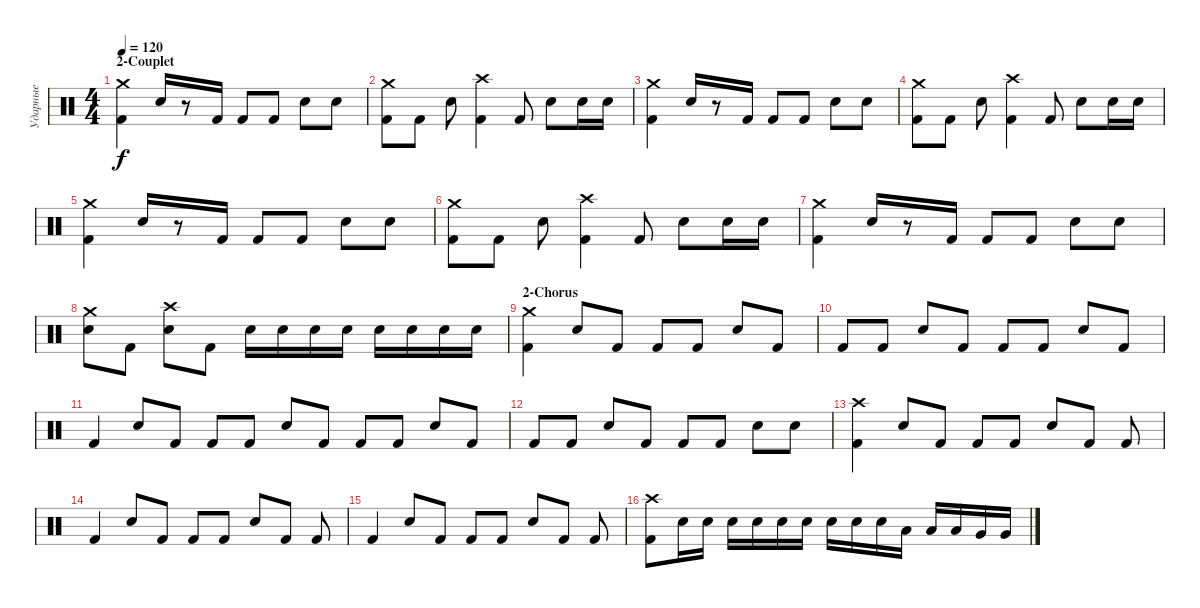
\track ("Ударные" "Ударные") {instrument percussion}
\staff {score}
\articulation defaults
\ts (4 4)
\section ("" "2-Couplet")
\tempo 120
\clef neutral
\ks c
("Kick (hit) 2" "Crash medium (hit)").4{dy f} "Electric Snare (hit)".16 r.8 "Kick (hit) 2".16 "Kick (hit) 2".8 "Kick (hit) 2".8 "Electric Snare (hit)".8 "Electric Snare (hit)".8 |
("Kick (hit) 2" "Crash medium (hit)").8 "Kick (hit) 2".8 "Electric Snare (hit)".8 ("Kick (hit) 2" "Crash high (hit)").4 "Kick (hit) 2".8 "Electric Snare (hit)".8 "Electric Snare (hit)".16 "Electric Snare (hit)".16 |
("Kick (hit) 2" "Crash medium (hit)").4 "Electric Snare (hit)".16 r.8 "Kick (hit) 2".16 "Kick (hit) 2".8 "Kick (hit) 2".8 "Electric Snare (hit)".8 "Electric Snare (hit)".8 |
("Kick (hit) 2" "Crash medium (hit)").8 "Kick (hit) 2".8 "Electric Snare (hit)".8 ("Kick (hit) 2" "Crash high (hit)").4 "Kick (hit) 2".8 "Electric Snare (hit)".8 "Electric Snare (hit)".16 "Electric Snare (hit)".16 |
("Kick (hit) 2" "Crash medium (hit)").4 "Electric Snare (hit)".16 r.8 "Kick (hit) 2".16 "Kick (hit) 2".8 "Kick (hit) 2".8 "Electric Snare (hit)".8 "Electric Snare (hit)".8 |
("Kick (hit) 2" "Crash medium (hit)").8 "Kick (hit) 2".8 "Electric Snare (hit)".8 ("Kick (hit) 2" "Crash high (hit)").4 "Kick (hit) 2".8 "Electric Snare (hit)".8 "Electric Snare (hit)".16 "Electric Snare (hit)".16 |
("Kick (hit) 2" "Crash medium (hit)").4 "Electric Snare (hit)".16 r.8 "Kick (hit) 2".16 "Kick (hit) 2".8 "Kick (hit) 2".8 "Electric Snare (hit)".8 "Electric Snare (hit)".8 |
("Electric Snare (hit)" "Crash medium (hit)").8 "Kick (hit) 2".8 ("Electric Snare (hit)" "Crash high (hit)").8 "Kick (hit) 2".8 "Electric Snare (hit)".16 "Electric Snare (hit)".16 "Electric Snare (hit)".16 "Electric Snare (hit)".16 "Electric Snare (hit)".16 "Electric Snare (hit)".16 "Electric Snare (hit)".16 "Electric Snare (hit)".16 |
\section ("" "2-Chorus")
("Kick (hit) 2" "Crash medium (hit)").4 "Electric Snare (hit)".8 "Kick (hit) 2".8 "Kick (hit) 2".8 "Kick (hit) 2".8 "Electric Snare (hit)".8 "Kick (hit) 2".8 |
"Kick (hit) 2".8 "Kick (hit) 2".8 "Electric Snare (hit)".8 "Kick (hit) 2".8 "Kick (hit) 2".8 "Kick (hit) 2".8 "Electric Snare (hit)".8 "Kick (hit) 2".8 |
"Kick (hit) 2".4 "Electric Snare (hit)".8 "Kick (hit) 2".8 "Kick (hit) 2".8 "Kick (hit) 2".8 "Electric Snare (hit)".8 "Kick (hit) 2".8 "Kick (hit) 2".8 "Kick (hit) 2".8 "Electric Snare (hit)".8 "Kick (hit) 2".8 |
"Kick (hit) 2".8 "Kick (hit) 2".8 "Electric Snare (hit)".8 "Kick (hit) 2".8 "Kick (hit) 2".8 "Kick (hit) 2".8 "Electric Snare (hit)".8 "Electric Snare (hit)".8 |
("Kick (hit) 2" "Crash high (hit)").4 "Electric Snare (hit)".8 "Kick (hit) 2".8 "Kick (hit) 2".8 "Kick (hit) 2".8 "Electric Snare (hit)".8 "Kick (hit) 2".8 "Kick (hit) 2".8 |
"Kick (hit) 2".4 "Electric Snare (hit)".8 "Kick (hit) 2".8 "Kick (hit) 2".8 "Kick (hit) 2".8 "Electric Snare (hit)".8 "Kick (hit) 2".8 "Kick (hit) 2".8 |
"Kick (hit) 2".4 "Electric Snare (hit)".8 "Kick (hit) 2".8 "Kick (hit) 2".8 "Kick (hit) 2".8 "Electric Snare (hit)".8 "Kick (hit) 2".8 "Kick (hit) 2".8 |
("Kick (hit) 2" "Crash high (hit)").8 "Electric Snare (hit)".16 "Electric Snare (hit)".16 "Electric Snare (hit)".16 "Electric Snare (hit)".16 "Electric Snare (hit)".16 "Electric Snare (hit)".16 "Electric Snare (hit)".16 "Electric Snare (hit)".16 "Electric Snare (hit)".16 "Low Tom (hit)".16 "Low Tom (hit)".16 "Low Tom (hit)".16 "Very Low Tom (hit)".16 "Very Low Tom (hit)".16
